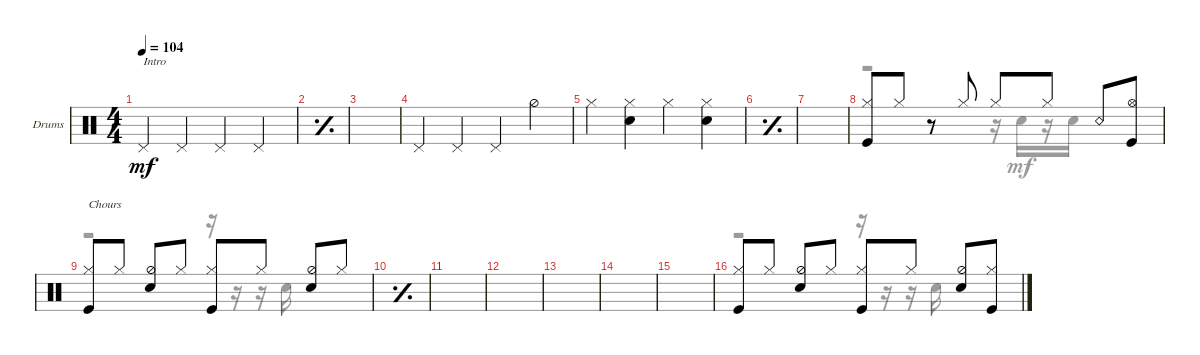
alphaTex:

\defaultSystemsLayout 4
\bracketExtendMode groupsimilarinstruments
\firstSystemTrackNameOrientation horizontal
\otherSystemsTrackNameOrientation horizontal
\track ("Алена" "Drums") {instrument percussion}
\staff {score}
\articulation defaults
\voice
\ts (4 4)
\tempo 104
\clef neutral
\ks c "Pedal Hi-Hat (hit)".4{txt "Intro" dy mf} "Pedal Hi-Hat (hit)".4 "Pedal Hi-Hat (hit)".4 "Pedal Hi-Hat (hit)".4
|
\simile simple
|
|
\simile none "Pedal Hi-Hat (hit)".4 "Pedal Hi-Hat (hit)".4 "Pedal Hi-Hat (hit)".4 "Hi-Hat (half)".4
|
"Hi-Hat (closed)".4 ("Hi-Hat (closed)" "Snare (hit) 2").4 "Hi-Hat (closed)".4 ("Hi-Hat (closed)" "Snare (hit) 2").4 |
\simile simple
|
|
\simile none
("Hi-Hat (closed)" "Kick (hit)").8 "Hi-Hat (closed)".8 r.8 "Hi-Hat (closed)".8 "Hi-Hat (closed)".8 "Hi-Hat (closed)".8 "Snare (rim shot)".8 ("Hi-Hat (open)" "Kick (hit)").8 |
("Hi-Hat (closed)" "Kick (hit)").8{txt "Chours"} "Hi-Hat (closed)".8 ("Hi-Hat (half)" "Snare (hit) 2").8 "Hi-Hat (closed)".8 ("Hi-Hat (closed)" "Kick (hit)").8 "Hi-Hat (closed)".8 ("Hi-Hat (half)" "Snare (hit) 2").8 "Hi-Hat (closed)".8 |
\simile simple
|
|
|
|
|
|
\simile none
("Hi-Hat (closed)" "Kick (hit)").8 "Hi-Hat (closed)".8 ("Hi-Hat (half)" "Snare (hit) 2").8 "Hi-Hat (closed)".8 ("Hi-Hat (closed)" "Kick (hit)").8 "Hi-Hat (closed)".8 ("Hi-Hat (half)" "Snare (hit) 2").8 ("Hi-Hat (closed)" "Kick (hit)").8
\voice
\clef neutral
\ottava regular
\simile none
\ks c
|
\simile simple
|
|
\simile none
|
|
\simile simple
|
|
\simile none
r.2 r.16 "Snare (hit) 2".16 r.16 "Snare (hit) 2".16 |
r.2 r.16 r.16 r.16 "Snare (hit) 2".16 |
\simile simple
|
|
|
|
|
|
\simile none
r.2 r.16 r.16 r.16 "Snare (hit) 2".16
